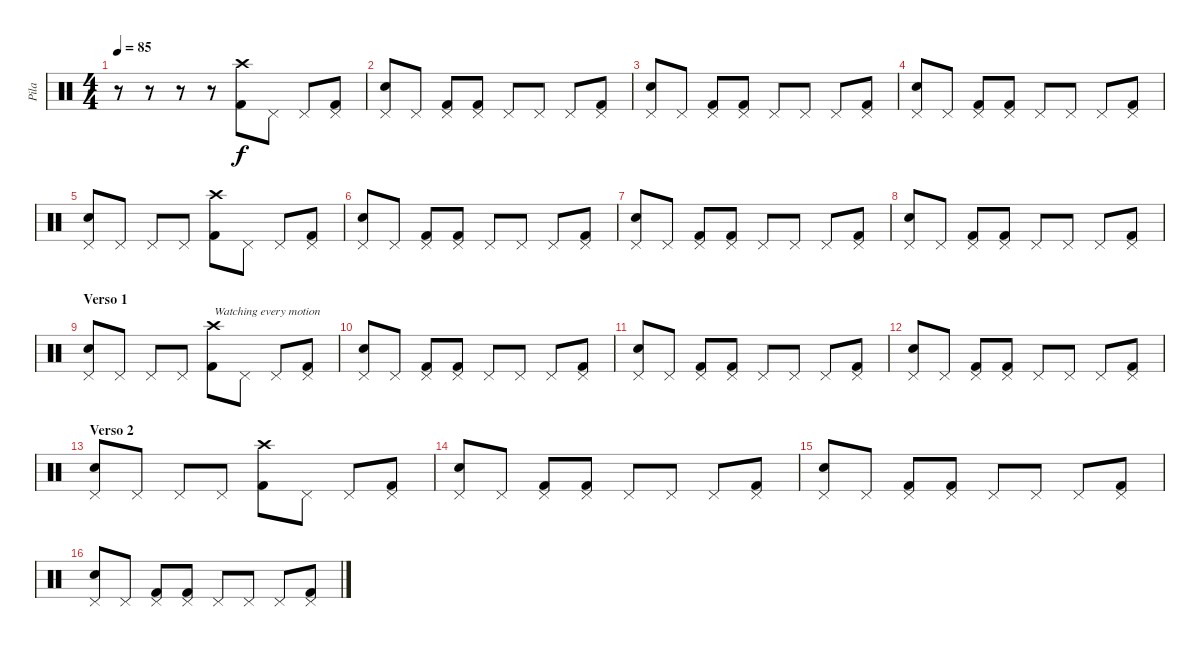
\track ("Pila" "Pila") {instrument percussion}
\staff {score}
\articulation defaults
\ts (4 4)
\tempo 85
\clef neutral
\ks c
r.8{dy f} r.8 r.8 r.8 ("Crash high (hit)" "Kick (hit) 2").8 "Pedal Hi-Hat (hit)".8 "Pedal Hi-Hat (hit)".8 ("Pedal Hi-Hat (hit)" "Kick (hit) 2").8 |
("Pedal Hi-Hat (hit)" "Electric Snare (hit)").8 "Pedal Hi-Hat (hit)".8 ("Pedal Hi-Hat (hit)" "Kick (hit) 2").8 ("Pedal Hi-Hat (hit)" "Kick (hit) 2").8 "Pedal Hi-Hat (hit)".8 "Pedal Hi-Hat (hit)".8 "Pedal Hi-Hat (hit)".8 ("Pedal Hi-Hat (hit)" "Kick (hit) 2").8 |
("Pedal Hi-Hat (hit)" "Electric Snare (hit)").8 "Pedal Hi-Hat (hit)".8 ("Pedal Hi-Hat (hit)" "Kick (hit) 2").8 ("Pedal Hi-Hat (hit)" "Kick (hit) 2").8 "Pedal Hi-Hat (hit)".8 "Pedal Hi-Hat (hit)".8 "Pedal Hi-Hat (hit)".8 ("Pedal Hi-Hat (hit)" "Kick (hit) 2").8 |
("Pedal Hi-Hat (hit)" "Electric Snare (hit)").8 "Pedal Hi-Hat (hit)".8 ("Pedal Hi-Hat (hit)" "Kick (hit) 2").8 ("Pedal Hi-Hat (hit)" "Kick (hit) 2").8 "Pedal Hi-Hat (hit)".8 "Pedal Hi-Hat (hit)".8 "Pedal Hi-Hat (hit)".8 ("Pedal Hi-Hat (hit)" "Kick (hit) 2").8 |
("Pedal Hi-Hat (hit)" "Electric Snare (hit)").8 "Pedal Hi-Hat (hit)".8 "Pedal Hi-Hat (hit)".8 "Pedal Hi-Hat (hit)".8 ("Crash high (hit)" "Kick (hit) 2").8 "Pedal Hi-Hat (hit)".8 "Pedal Hi-Hat (hit)".8 ("Pedal Hi-Hat (hit)" "Kick (hit) 2").8 |
("Pedal Hi-Hat (hit)" "Electric Snare (hit)").8 "Pedal Hi-Hat (hit)".8 ("Pedal Hi-Hat (hit)" "Kick (hit) 2").8 ("Pedal Hi-Hat (hit)" "Kick (hit) 2").8 "Pedal Hi-Hat (hit)".8 "Pedal Hi-Hat (hit)".8 "Pedal Hi-Hat (hit)".8 ("Pedal Hi-Hat (hit)" "Kick (hit) 2").8 |
("Pedal Hi-Hat (hit)" "Electric Snare (hit)").8 "Pedal Hi-Hat (hit)".8 ("Pedal Hi-Hat (hit)" "Kick (hit) 2").8 ("Pedal Hi-Hat (hit)" "Kick (hit) 2").8 "Pedal Hi-Hat (hit)".8 "Pedal Hi-Hat (hit)".8 "Pedal Hi-Hat (hit)".8 ("Pedal Hi-Hat (hit)" "Kick (hit) 2").8 |
("Pedal Hi-Hat (hit)" "Electric Snare (hit)").8 "Pedal Hi-Hat (hit)".8 ("Pedal Hi-Hat (hit)" "Kick (hit) 2").8 ("Pedal Hi-Hat (hit)" "Kick (hit) 2").8 "Pedal Hi-Hat (hit)".8 "Pedal Hi-Hat (hit)".8 "Pedal Hi-Hat (hit)".8 ("Pedal Hi-Hat (hit)" "Kick (hit) 2").8 |
\section ("" "Verso 1")
("Pedal Hi-Hat (hit)" "Electric Snare (hit)").8 "Pedal Hi-Hat (hit)".8 "Pedal Hi-Hat (hit)".8 "Pedal Hi-Hat (hit)".8 ("Crash high (hit)" "Kick (hit) 2").8{txt "Watching every motion"} "Pedal Hi-Hat (hit)".8 "Pedal Hi-Hat (hit)".8 ("Pedal Hi-Hat (hit)" "Kick (hit) 2").8 |
("Pedal Hi-Hat (hit)" "Electric Snare (hit)").8 "Pedal Hi-Hat (hit)".8 ("Pedal Hi-Hat (hit)" "Kick (hit) 2").8 ("Pedal Hi-Hat (hit)" "Kick (hit) 2").8 "Pedal Hi-Hat (hit)".8 "Pedal Hi-Hat (hit)".8 "Pedal Hi-Hat (hit)".8 ("Pedal Hi-Hat (hit)" "Kick (hit) 2").8 |
("Pedal Hi-Hat (hit)" "Electric Snare (hit)").8 "Pedal Hi-Hat (hit)".8 ("Pedal Hi-Hat (hit)" "Kick (hit) 2").8 ("Pedal Hi-Hat (hit)" "Kick (hit) 2").8 "Pedal Hi-Hat (hit)".8 "Pedal Hi-Hat (hit)".8 "Pedal Hi-Hat (hit)".8 ("Pedal Hi-Hat (hit)" "Kick (hit) 2").8 |
("Pedal Hi-Hat (hit)" "Electric Snare (hit)").8 "Pedal Hi-Hat (hit)".8 ("Pedal Hi-Hat (hit)" "Kick (hit) 2").8 ("Pedal Hi-Hat (hit)" "Kick (hit) 2").8 "Pedal Hi-Hat (hit)".8 "Pedal Hi-Hat (hit)".8 "Pedal Hi-Hat (hit)".8 ("Pedal Hi-Hat (hit)" "Kick (hit) 2").8 |
\section ("" "Verso 2")
("Pedal Hi-Hat (hit)" "Electric Snare (hit)").8 "Pedal Hi-Hat (hit)".8 "Pedal Hi-Hat (hit)".8 "Pedal Hi-Hat (hit)".8 ("Crash high (hit)" "Kick (hit) 2").8 "Pedal Hi-Hat (hit)".8 "Pedal Hi-Hat (hit)".8 ("Pedal Hi-Hat (hit)" "Kick (hit) 2").8 |
("Pedal Hi-Hat (hit)" "Electric Snare (hit)").8 "Pedal Hi-Hat (hit)".8 ("Pedal Hi-Hat (hit)" "Kick (hit) 2").8 ("Pedal Hi-Hat (hit)" "Kick (hit) 2").8 "Pedal Hi-Hat (hit)".8 "Pedal Hi-Hat (hit)".8 "Pedal Hi-Hat (hit)".8 ("Pedal Hi-Hat (hit)" "Kick (hit) 2").8 |
("Pedal Hi-Hat (hit)" "Electric Snare (hit)").8 "Pedal Hi-Hat (hit)".8 ("Pedal Hi-Hat (hit)" "Kick (hit) 2").8 ("Pedal Hi-Hat (hit)" "Kick (hit) 2").8 "Pedal Hi-Hat (hit)".8 "Pedal Hi-Hat (hit)".8 "Pedal Hi-Hat (hit)".8 ("Pedal Hi-Hat (hit)" "Kick (hit) 2").8 |
("Pedal Hi-Hat (hit)" "Electric Snare (hit)").8 "Pedal Hi-Hat (hit)".8 ("Pedal Hi-Hat (hit)" "Kick (hit) 2").8 ("Pedal Hi-Hat (hit)" "Kick (hit) 2").8 "Pedal Hi-Hat (hit)".8 "Pedal Hi-Hat (hit)".8 "Pedal Hi-Hat (hit)".8 ("Pedal Hi-Hat (hit)" "Kick (hit) 2").8
